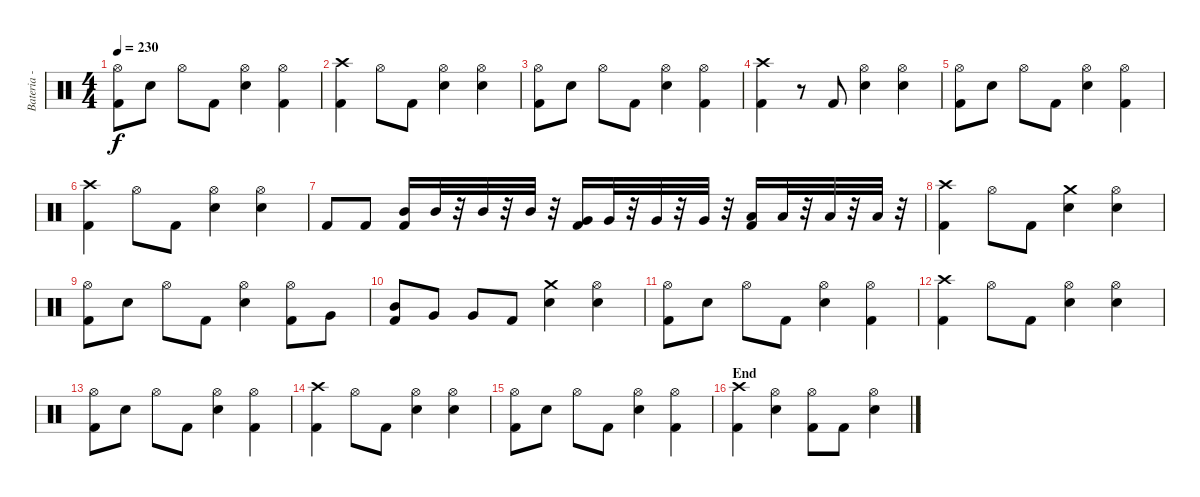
\track ("Bateria - Larzon" "Bateria - ") {instrument percussion}
\staff {score}
\articulation defaults
\ts (4 4)
\tempo 230
\clef neutral
\ks c
("Hi-Hat (open)" "Kick (hit) 2").8{dy f} "Electric Snare (hit)".8 "Hi-Hat (open)".8 "Kick (hit) 2".8 ("Hi-Hat (open)" "Electric Snare (hit)").4 ("Hi-Hat (open)" "Kick (hit) 2").4 |
("Crash high (hit)" "Kick (hit) 2").4 "Hi-Hat (open)".8 "Kick (hit) 2".8 ("Electric Snare (hit)" "Hi-Hat (open)").4 ("Hi-Hat (open)" "Electric Snare (hit)").4 |
("Hi-Hat (open)" "Kick (hit) 2").8 "Electric Snare (hit)".8 "Hi-Hat (open)".8 "Kick (hit) 2".8 ("Hi-Hat (open)" "Electric Snare (hit)").4 ("Hi-Hat (open)" "Kick (hit) 2").4 |
("Crash high (hit)" "Kick (hit) 2").4 r.8 "Kick (hit) 2".8 ("Electric Snare (hit)" "Hi-Hat (open)").4 ("Hi-Hat (open)" "Electric Snare (hit)").4 |
("Hi-Hat (open)" "Kick (hit) 2").8 "Electric Snare (hit)".8 "Hi-Hat (open)".8 "Kick (hit) 2".8 ("Hi-Hat (open)" "Electric Snare (hit)").4 ("Hi-Hat (open)" "Kick (hit) 2").4 |
("Crash high (hit)" "Kick (hit) 2").4 "Hi-Hat (open)".8 "Kick (hit) 2".8 ("Electric Snare (hit)" "Hi-Hat (open)").4 ("Hi-Hat (open)" "Electric Snare (hit)").4 |
"Kick (hit) 2".8 "Kick (hit) 2".8 ("Mid Tom (hit)" "Kick (hit) 2").16 "Mid Tom (hit)".32 r.32 "Mid Tom (hit)".32 r.32 "Mid Tom (hit)".32 r.32 ("Very Low Tom (hit)" "Kick (hit) 2").16 "Very Low Tom (hit)".32 r.32 "Very Low Tom (hit)".32 r.32 "Very Low Tom (hit)".32 r.32 ("Low Floor Tom (hit)" "Kick (hit) 2").16 "Low Floor Tom (hit)".32 r.32 "Low Floor Tom (hit)".32 r.32 "Low Floor Tom (hit)".32 r.32 |
("Crash high (hit)" "Kick (hit) 2").4 "Hi-Hat (open)".8 "Kick (hit) 2".8 ("Electric Snare (hit)" "Crash medium (hit)").4 ("Hi-Hat (open)" "Electric Snare (hit)").4 |
("Hi-Hat (open)" "Kick (hit) 2").8 "Electric Snare (hit)".8 "Hi-Hat (open)".8 "Kick (hit) 2".8 ("Hi-Hat (open)" "Electric Snare (hit)").4 ("Kick (hit) 2" "Hi-Hat (open)").8 "Very Low Tom (hit)".8 |
("Kick (hit) 2" "Mid Tom (hit)").8 "Very Low Tom (hit)".8 "Very Low Tom (hit)".8 "Kick (hit) 2".8 ("Electric Snare (hit)" "Crash medium (hit)").4 ("Hi-Hat (open)" "Electric Snare (hit)").4 |
("Hi-Hat (open)" "Kick (hit) 2").8 "Electric Snare (hit)".8 "Hi-Hat (open)".8 "Kick (hit) 2".8 ("Hi-Hat (open)" "Electric Snare (hit)").4 ("Hi-Hat (open)" "Kick (hit) 2").4 |
("Crash high (hit)" "Kick (hit) 2").4 "Hi-Hat (open)".8 "Kick (hit) 2".8 ("Electric Snare (hit)" "Hi-Hat (open)").4 ("Hi-Hat (open)" "Electric Snare (hit)").4 |
("Hi-Hat (open)" "Kick (hit) 2").8 "Electric Snare (hit)".8 "Hi-Hat (open)".8 "Kick (hit) 2".8 ("Hi-Hat (open)" "Electric Snare (hit)").4 ("Hi-Hat (open)" "Kick (hit) 2").4 |
("Crash high (hit)" "Kick (hit) 2").4 "Hi-Hat (open)".8 "Kick (hit) 2".8 ("Electric Snare (hit)" "Hi-Hat (open)").4 ("Hi-Hat (open)" "Electric Snare (hit)").4 |
("Kick (hit) 2" "Hi-Hat (open)").8 "Electric Snare (hit)".8 "Hi-Hat (open)".8 "Kick (hit) 2".8 ("Hi-Hat (open)" "Electric Snare (hit)").4 ("Hi-Hat (open)" "Kick (hit) 2").4 |
\section ("" "End")
("Crash high (hit)" "Kick (hit) 2").4 ("Hi-Hat (open)" "Electric Snare (hit)").4 ("Hi-Hat (open)" "Kick (hit) 2").8 "Kick (hit) 2".8 ("Hi-Hat (open)" "Electric Snare (hit)").4
